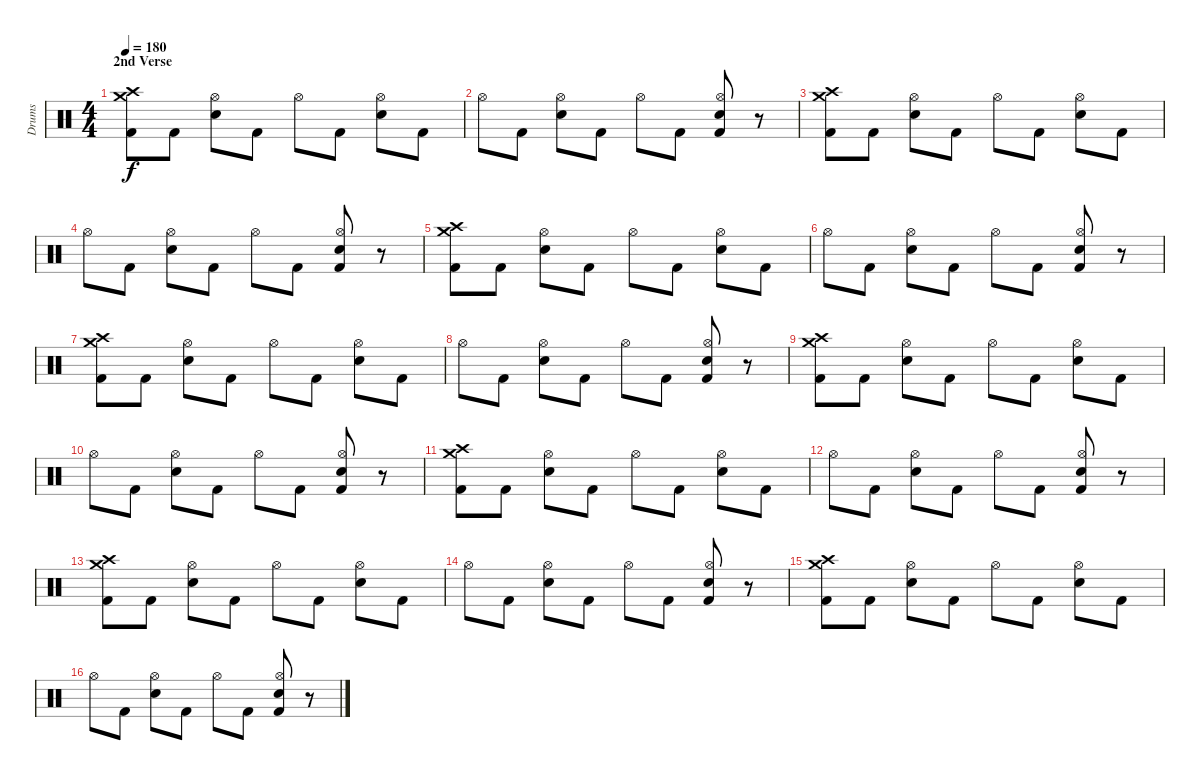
\track ("Drums" "Drums") {instrument percussion}
\staff {score}
\articulation defaults
\ts (4 4)
\section ("" "2nd Verse")
\tempo 180
\clef neutral
\ks c
("Crash medium (hit)" "Crash high (hit)" "Kick (hit) 2").8{dy f} "Kick (hit) 2".8 ("Hi-Hat (open)" "Snare (hit) 2").8 "Kick (hit) 2".8 "Hi-Hat (open)".8 "Kick (hit) 2".8 ("Hi-Hat (open)" "Snare (hit) 2").8 "Kick (hit) 2".8 |
"Hi-Hat (open)".8 "Kick (hit) 2".8 ("Hi-Hat (open)" "Snare (hit) 2").8 "Kick (hit) 2".8 "Hi-Hat (open)".8 "Kick (hit) 2".8 ("Hi-Hat (open)" "Snare (hit) 2" "Kick (hit) 2").8 r.8 |
("Crash medium (hit)" "Crash high (hit)" "Kick (hit) 2").8 "Kick (hit) 2".8 ("Hi-Hat (open)" "Snare (hit) 2").8 "Kick (hit) 2".8 "Hi-Hat (open)".8 "Kick (hit) 2".8 ("Hi-Hat (open)" "Snare (hit) 2").8 "Kick (hit) 2".8 |
"Hi-Hat (open)".8 "Kick (hit) 2".8 ("Hi-Hat (open)" "Snare (hit) 2").8 "Kick (hit) 2".8 "Hi-Hat (open)".8 "Kick (hit) 2".8 ("Hi-Hat (open)" "Snare (hit) 2" "Kick (hit) 2").8 r.8 |
("Crash medium (hit)" "Crash high (hit)" "Kick (hit) 2").8 "Kick (hit) 2".8 ("Hi-Hat (open)" "Snare (hit) 2").8 "Kick (hit) 2".8 "Hi-Hat (open)".8 "Kick (hit) 2".8 ("Hi-Hat (open)" "Snare (hit) 2").8 "Kick (hit) 2".8 |
"Hi-Hat (open)".8 "Kick (hit) 2".8 ("Hi-Hat (open)" "Snare (hit) 2").8 "Kick (hit) 2".8 "Hi-Hat (open)".8 "Kick (hit) 2".8 ("Hi-Hat (open)" "Snare (hit) 2" "Kick (hit) 2").8 r.8 |
("Crash medium (hit)" "Crash high (hit)" "Kick (hit) 2").8 "Kick (hit) 2".8 ("Hi-Hat (open)" "Snare (hit) 2").8 "Kick (hit) 2".8 "Hi-Hat (open)".8 "Kick (hit) 2".8 ("Hi-Hat (open)" "Snare (hit) 2").8 "Kick (hit) 2".8 |
"Hi-Hat (open)".8 "Kick (hit) 2".8 ("Hi-Hat (open)" "Snare (hit) 2").8 "Kick (hit) 2".8 "Hi-Hat (open)".8 "Kick (hit) 2".8 ("Hi-Hat (open)" "Snare (hit) 2" "Kick (hit) 2").8 r.8 |
("Crash medium (hit)" "Crash high (hit)" "Kick (hit) 2").8 "Kick (hit) 2".8 ("Hi-Hat (open)" "Snare (hit) 2").8 "Kick (hit) 2".8 "Hi-Hat (open)".8 "Kick (hit) 2".8 ("Hi-Hat (open)" "Snare (hit) 2").8 "Kick (hit) 2".8 |
"Hi-Hat (open)".8 "Kick (hit) 2".8 ("Hi-Hat (open)" "Snare (hit) 2").8 "Kick (hit) 2".8 "Hi-Hat (open)".8 "Kick (hit) 2".8 ("Hi-Hat (open)" "Snare (hit) 2" "Kick (hit) 2").8 r.8 |
("Crash medium (hit)" "Crash high (hit)" "Kick (hit) 2").8 "Kick (hit) 2".8 ("Hi-Hat (open)" "Snare (hit) 2").8 "Kick (hit) 2".8 "Hi-Hat (open)".8 "Kick (hit) 2".8 ("Hi-Hat (open)" "Snare (hit) 2").8 "Kick (hit) 2".8 |
"Hi-Hat (open)".8 "Kick (hit) 2".8 ("Hi-Hat (open)" "Snare (hit) 2").8 "Kick (hit) 2".8 "Hi-Hat (open)".8 "Kick (hit) 2".8 ("Hi-Hat (open)" "Snare (hit) 2" "Kick (hit) 2").8 r.8 |
("Crash medium (hit)" "Crash high (hit)" "Kick (hit) 2").8 "Kick (hit) 2".8 ("Hi-Hat (open)" "Snare (hit) 2").8 "Kick (hit) 2".8 "Hi-Hat (open)".8 "Kick (hit) 2".8 ("Hi-Hat (open)" "Snare (hit) 2").8 "Kick (hit) 2".8 |
"Hi-Hat (open)".8 "Kick (hit) 2".8 ("Hi-Hat (open)" "Snare (hit) 2").8 "Kick (hit) 2".8 "Hi-Hat (open)".8 "Kick (hit) 2".8 ("Hi-Hat (open)" "Snare (hit) 2" "Kick (hit) 2").8 r.8 |
("Crash medium (hit)" "Crash high (hit)" "Kick (hit) 2").8 "Kick (hit) 2".8 ("Hi-Hat (open)" "Snare (hit) 2").8 "Kick (hit) 2".8 "Hi-Hat (open)".8 "Kick (hit) 2".8 ("Hi-Hat (open)" "Snare (hit) 2").8 "Kick (hit) 2".8 |
"Hi-Hat (open)".8 "Kick (hit) 2".8 ("Hi-Hat (open)" "Snare (hit) 2").8 "Kick (hit) 2".8 "Hi-Hat (open)".8 "Kick (hit) 2".8 ("Hi-Hat (open)" "Snare (hit) 2" "Kick (hit) 2").8 r.8
